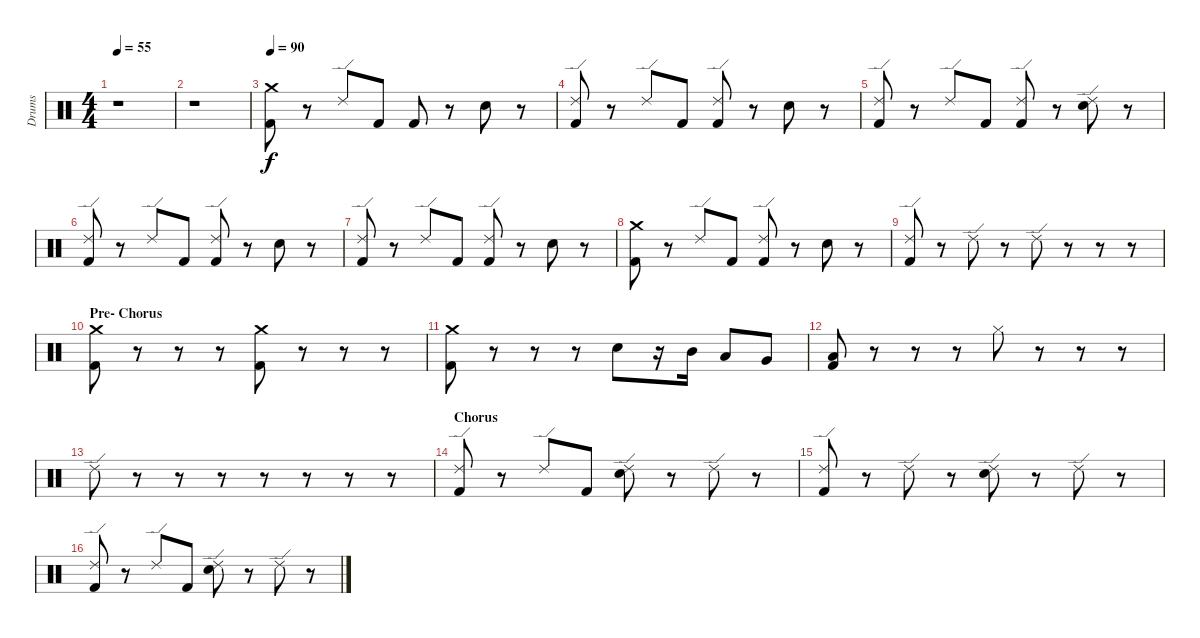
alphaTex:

\track ("Drums" "Drums") {instrument percussion}
\staff {score}
\articulation defaults
\ts (4 4)
\tempo 55
\clef neutral
\ks c
r.1{dy f} |
r.1 |
\tempo 90
("Crash medium (hit)" "Kick (hit) 2").8 r.8 "Ride (edge) 2".8 "Kick (hit) 2".8 "Kick (hit) 2".8 r.8 "Snare (hit) 2".8 r.8 |
("Ride (edge) 2" "Kick (hit) 2").8 r.8 "Ride (edge) 2".8 "Kick (hit) 2".8 ("Ride (edge) 2" "Kick (hit) 2").8 r.8 "Snare (hit) 2".8 r.8 |
("Ride (edge) 2" "Kick (hit) 2").8 r.8 "Ride (edge) 2".8 "Kick (hit) 2".8 ("Ride (edge) 2" "Kick (hit) 2").8 r.8 ("Ride (edge) 2" "Snare (hit) 2").8 r.8 |
("Ride (edge) 2" "Kick (hit) 2").8 r.8 "Ride (edge) 2".8 "Kick (hit) 2".8 ("Ride (edge) 2" "Kick (hit) 2").8 r.8 "Snare (hit) 2".8 r.8 |
("Ride (edge) 2" "Kick (hit) 2").8 r.8 "Ride (edge) 2".8 "Kick (hit) 2".8 ("Ride (edge) 2" "Kick (hit) 2").8 r.8 "Snare (hit) 2".8 r.8 |
("Crash medium (hit)" "Kick (hit) 2").8 r.8 "Ride (edge) 2".8 "Kick (hit) 2".8 ("Ride (edge) 2" "Kick (hit) 2").8 r.8 "Snare (hit) 2".8 r.8 |
("Ride (edge) 2" "Kick (hit) 2").8 r.8 "Ride (edge) 2".8 r.8 "Ride (edge) 2".8 r.8 r.8 r.8 |
\section ("" "Pre- Chorus")
("Crash medium (hit)" "Kick (hit) 2").8 r.8 r.8 r.8 ("Crash medium (hit)" "Kick (hit) 2").8 r.8 r.8 r.8 |
("Crash medium (hit)" "Kick (hit) 2").8 r.8 r.8 r.8 "Snare (hit) 2".8 r.16 "Mid Tom (hit)".16 "Low Tom (hit)".8 "Very Low Tom (hit)".8 |
("Low Floor Tom (hit)" "Kick (hit) 2").8 r.8 r.8 r.8 "Hi-Hat (closed)".8 r.8 r.8 r.8 |
"Ride (edge) 2".8 r.8 r.8 r.8 r.8 r.8 r.8 r.8 |
\section ("" "Chorus")
("Ride (edge) 2" "Kick (hit) 2").8 r.8 "Ride (edge) 2".8 "Kick (hit) 2".8 ("Ride (edge) 2" "Snare (hit) 2").8 r.8 "Ride (edge) 2".8 r.8 |
("Ride (edge) 2" "Kick (hit) 2").8 r.8 "Ride (edge) 2".8 r.8 ("Ride (edge) 2" "Snare (hit) 2").8 r.8 "Ride (edge) 2".8 r.8 |
("Ride (edge) 2" "Kick (hit) 2").8 r.8 "Ride (edge) 2".8 "Kick (hit) 2".8 ("Ride (edge) 2" "Snare (hit) 2").8 r.8 "Ride (edge) 2".8 r.8
